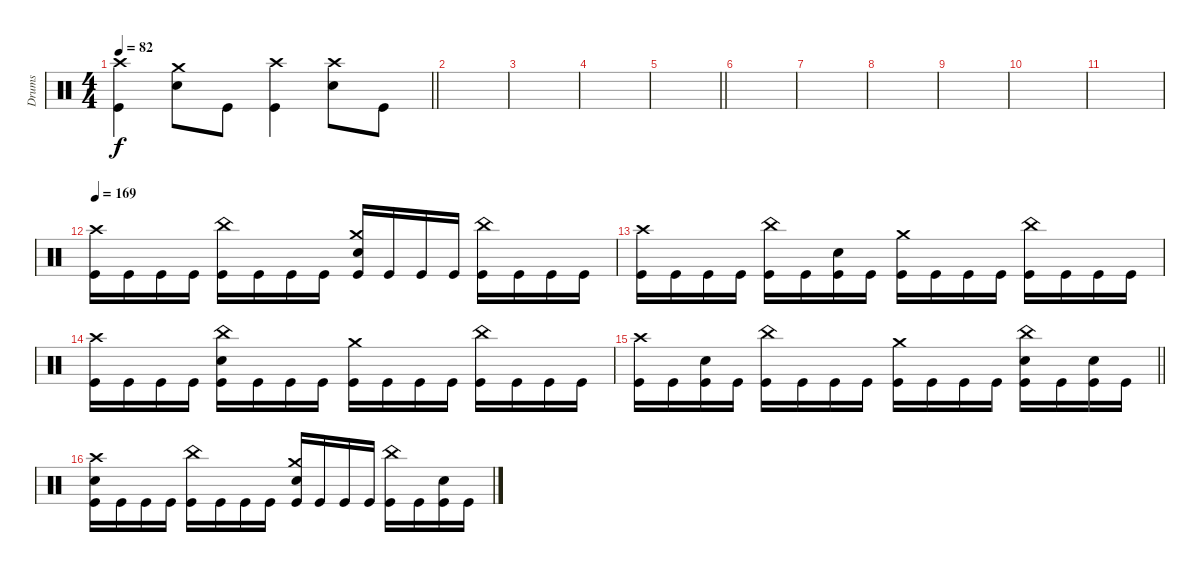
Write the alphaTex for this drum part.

\track ("Drums" "Drums") {instrument percussion}
\staff
\articulation defaults
\ts (4 4)
\tempo 82
\clef neutral
\barLineRight lightlight
\ks c
("Crash high (hit)" "Kick (hit)").4{dy f} ("Crash medium (hit)" "Electric Snare (hit)").8 "Kick (hit)".8 ("Crash high (hit)" "Kick (hit)").4 ("Crash high (hit)" "Electric Snare (hit)").8 "Kick (hit)".8 |
|
|
|
\barLineRight lightlight
|
|
|
|
|
|
|
\tempo 169
("Crash high (hit)" "Kick (hit)").16 "Kick (hit)".16 "Kick (hit)".16 "Kick (hit)".16 ("China (hit)" "Kick (hit)").16 "Kick (hit)".16 "Kick (hit)".16 "Kick (hit)".16 ("Crash medium (hit)" "Electric Snare (hit)" "Kick (hit)").16 "Kick (hit)".16 "Kick (hit)".16 "Kick (hit)".16 ("China (hit)" "Kick (hit)").16 "Kick (hit)".16 "Kick (hit)".16 "Kick (hit)".16 |
("Crash high (hit)" "Kick (hit)").16 "Kick (hit)".16 "Kick (hit)".16 "Kick (hit)".16 ("China (hit)" "Kick (hit)").16 "Kick (hit)".16 ("Electric Snare (hit)" "Kick (hit)").16 "Kick (hit)".16 ("Crash medium (hit)" "Kick (hit)").16 "Kick (hit)".16 "Kick (hit)".16 "Kick (hit)".16 ("China (hit)" "Kick (hit)").16 "Kick (hit)".16 "Kick (hit)".16 "Kick (hit)".16 |
("Crash high (hit)" "Kick (hit)").16 "Kick (hit)".16 "Kick (hit)".16 "Kick (hit)".16 ("China (hit)" "Electric Snare (hit)" "Kick (hit)").16 "Kick (hit)".16 "Kick (hit)".16 "Kick (hit)".16 ("Crash medium (hit)" "Kick (hit)").16 "Kick (hit)".16 "Kick (hit)".16 "Kick (hit)".16 ("China (hit)" "Kick (hit)").16 "Kick (hit)".16 "Kick (hit)".16 "Kick (hit)".16 |
\barLineRight lightlight
("Crash high (hit)" "Kick (hit)").16 "Kick (hit)".16 ("Electric Snare (hit)" "Kick (hit)").16 "Kick (hit)".16 ("China (hit)" "Kick (hit)").16 "Kick (hit)".16 "Kick (hit)".16 "Kick (hit)".16 ("Crash medium (hit)" "Kick (hit)").16 "Kick (hit)".16 "Kick (hit)".16 "Kick (hit)".16 ("China (hit)" "Electric Snare (hit)" "Kick (hit)").16 "Kick (hit)".16 ("Electric Snare (hit)" "Kick (hit)").16 "Kick (hit)".16 |
("Crash high (hit)" "Electric Snare (hit)" "Kick (hit)").16 "Kick (hit)".16 "Kick (hit)".16 "Kick (hit)".16 ("China (hit)" "Kick (hit)").16 "Kick (hit)".16 "Kick (hit)".16 "Kick (hit)".16 ("Crash medium (hit)" "Electric Snare (hit)" "Kick (hit)").16 "Kick (hit)".16 "Kick (hit)".16 "Kick (hit)".16 ("China (hit)" "Kick (hit)").16 "Kick (hit)".16 ("Electric Snare (hit)" "Kick (hit)").16 "Kick (hit)".16
